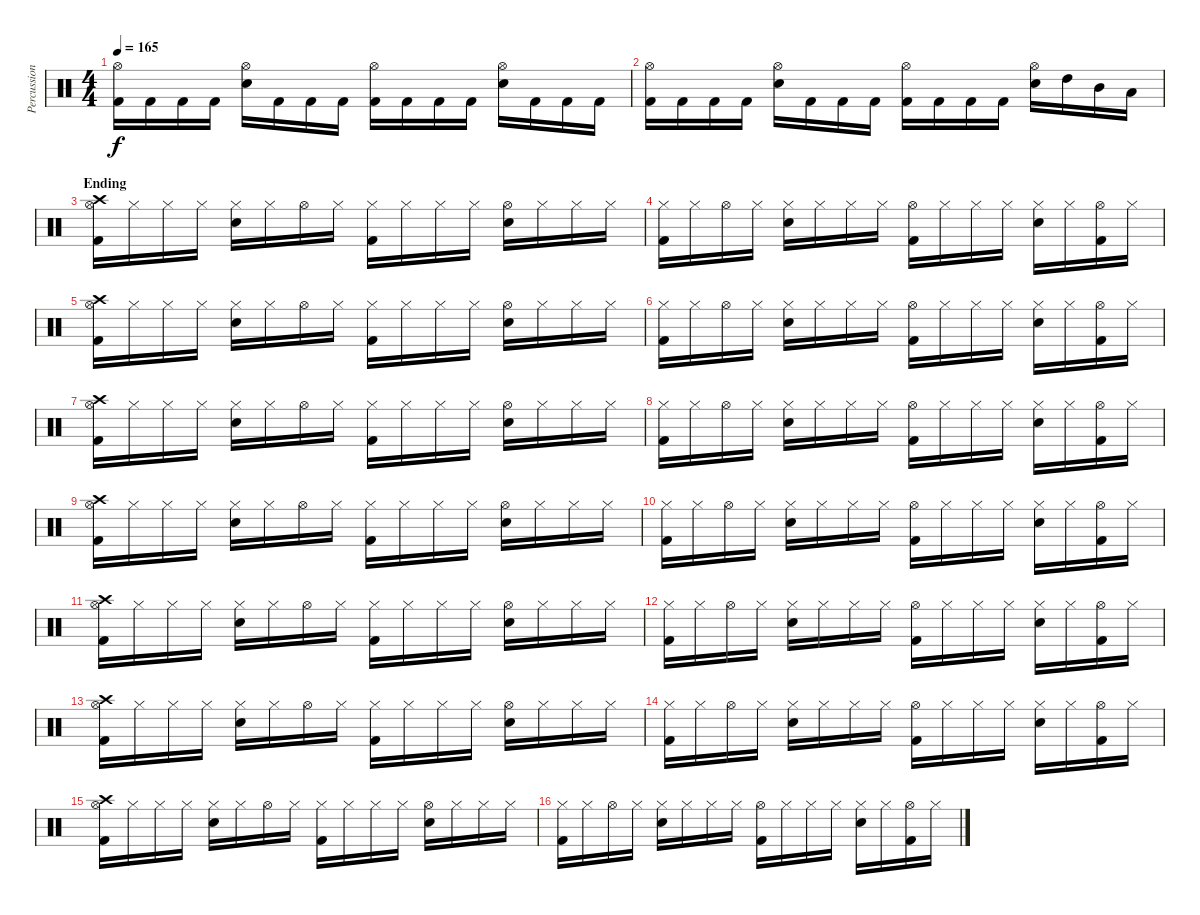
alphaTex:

\track ("Percussions" "Percussion") {instrument percussion}
\staff {score}
\articulation defaults
\ts (4 4)
\tempo 165
\clef neutral
\ks c
("Hi-Hat (open)" "Kick (hit) 2").16{dy f} "Kick (hit) 2".16 "Kick (hit) 2".16 "Kick (hit) 2".16 ("Hi-Hat (open)" "Electric Snare (hit)").16 "Kick (hit) 2".16 "Kick (hit) 2".16 "Kick (hit) 2".16 ("Hi-Hat (open)" "Kick (hit) 2").16 "Kick (hit) 2".16 "Kick (hit) 2".16 "Kick (hit) 2".16 ("Hi-Hat (open)" "Electric Snare (hit)").16 "Kick (hit) 2".16 "Kick (hit) 2".16 "Kick (hit) 2".16 |
("Hi-Hat (open)" "Kick (hit) 2").16 "Kick (hit) 2".16 "Kick (hit) 2".16 "Kick (hit) 2".16 ("Hi-Hat (open)" "Electric Snare (hit)").16 "Kick (hit) 2".16 "Kick (hit) 2".16 "Kick (hit) 2".16 ("Hi-Hat (open)" "Kick (hit) 2").16 "Kick (hit) 2".16 "Kick (hit) 2".16 "Kick (hit) 2".16 ("Hi-Hat (open)" "Electric Snare (hit)").16 "High Tom (hit)".16 "Mid Tom (hit)".16 "Low Tom (hit)".16 |
\section ("" "Ending")
("Hi-Hat (open)" "Crash high (hit)" "Kick (hit) 2").16 "Hi-Hat (closed)".16 "Hi-Hat (closed)".16 "Hi-Hat (closed)".16 ("Hi-Hat (closed)" "Electric Snare (hit)").16 "Hi-Hat (closed)".16 "Hi-Hat (open)".16 "Hi-Hat (closed)".16 ("Hi-Hat (closed)" "Kick (hit) 2").16 "Hi-Hat (closed)".16 "Hi-Hat (closed)".16 "Hi-Hat (closed)".16 ("Hi-Hat (open)" "Electric Snare (hit)").16 "Hi-Hat (closed)".16 "Hi-Hat (closed)".16 "Hi-Hat (closed)".16 |
("Hi-Hat (closed)" "Kick (hit) 2").16 "Hi-Hat (closed)".16 "Hi-Hat (open)".16 "Hi-Hat (closed)".16 ("Hi-Hat (closed)" "Electric Snare (hit)").16 "Hi-Hat (closed)".16 "Hi-Hat (closed)".16 "Hi-Hat (closed)".16 ("Hi-Hat (open)" "Kick (hit) 2").16 "Hi-Hat (closed)".16 "Hi-Hat (closed)".16 "Hi-Hat (closed)".16 ("Hi-Hat (closed)" "Electric Snare (hit)").16 "Hi-Hat (closed)".16 ("Hi-Hat (open)" "Kick (hit) 2").16 "Hi-Hat (closed)".16 |
("Hi-Hat (open)" "Crash high (hit)" "Kick (hit) 2").16 "Hi-Hat (closed)".16 "Hi-Hat (closed)".16 "Hi-Hat (closed)".16 ("Hi-Hat (closed)" "Electric Snare (hit)").16 "Hi-Hat (closed)".16 "Hi-Hat (open)".16 "Hi-Hat (closed)".16 ("Hi-Hat (closed)" "Kick (hit) 2").16 "Hi-Hat (closed)".16 "Hi-Hat (closed)".16 "Hi-Hat (closed)".16 ("Hi-Hat (open)" "Electric Snare (hit)").16 "Hi-Hat (closed)".16 "Hi-Hat (closed)".16 "Hi-Hat (closed)".16 |
("Hi-Hat (closed)" "Kick (hit) 2").16 "Hi-Hat (closed)".16 "Hi-Hat (open)".16 "Hi-Hat (closed)".16 ("Hi-Hat (closed)" "Electric Snare (hit)").16 "Hi-Hat (closed)".16 "Hi-Hat (closed)".16 "Hi-Hat (closed)".16 ("Hi-Hat (open)" "Kick (hit) 2").16 "Hi-Hat (closed)".16 "Hi-Hat (closed)".16 "Hi-Hat (closed)".16 ("Hi-Hat (closed)" "Electric Snare (hit)").16 "Hi-Hat (closed)".16 ("Hi-Hat (open)" "Kick (hit) 2").16 "Hi-Hat (closed)".16 |
("Hi-Hat (open)" "Crash high (hit)" "Kick (hit) 2").16 "Hi-Hat (closed)".16 "Hi-Hat (closed)".16 "Hi-Hat (closed)".16 ("Hi-Hat (closed)" "Electric Snare (hit)").16 "Hi-Hat (closed)".16 "Hi-Hat (open)".16 "Hi-Hat (closed)".16 ("Hi-Hat (closed)" "Kick (hit) 2").16 "Hi-Hat (closed)".16 "Hi-Hat (closed)".16 "Hi-Hat (closed)".16 ("Hi-Hat (open)" "Electric Snare (hit)").16 "Hi-Hat (closed)".16 "Hi-Hat (closed)".16 "Hi-Hat (closed)".16 |
("Hi-Hat (closed)" "Kick (hit) 2").16 "Hi-Hat (closed)".16 "Hi-Hat (open)".16 "Hi-Hat (closed)".16 ("Hi-Hat (closed)" "Electric Snare (hit)").16 "Hi-Hat (closed)".16 "Hi-Hat (closed)".16 "Hi-Hat (closed)".16 ("Hi-Hat (open)" "Kick (hit) 2").16 "Hi-Hat (closed)".16 "Hi-Hat (closed)".16 "Hi-Hat (closed)".16 ("Hi-Hat (closed)" "Electric Snare (hit)").16 "Hi-Hat (closed)".16 ("Hi-Hat (open)" "Kick (hit) 2").16 "Hi-Hat (closed)".16 |
("Hi-Hat (open)" "Crash high (hit)" "Kick (hit) 2").16 "Hi-Hat (closed)".16 "Hi-Hat (closed)".16 "Hi-Hat (closed)".16 ("Hi-Hat (closed)" "Electric Snare (hit)").16 "Hi-Hat (closed)".16 "Hi-Hat (open)".16 "Hi-Hat (closed)".16 ("Hi-Hat (closed)" "Kick (hit) 2").16 "Hi-Hat (closed)".16 "Hi-Hat (closed)".16 "Hi-Hat (closed)".16 ("Hi-Hat (open)" "Electric Snare (hit)").16 "Hi-Hat (closed)".16 "Hi-Hat (closed)".16 "Hi-Hat (closed)".16 |
("Hi-Hat (closed)" "Kick (hit) 2").16 "Hi-Hat (closed)".16 "Hi-Hat (open)".16 "Hi-Hat (closed)".16 ("Hi-Hat (closed)" "Electric Snare (hit)").16 "Hi-Hat (closed)".16 "Hi-Hat (closed)".16 "Hi-Hat (closed)".16 ("Hi-Hat (open)" "Kick (hit) 2").16 "Hi-Hat (closed)".16 "Hi-Hat (closed)".16 "Hi-Hat (closed)".16 ("Hi-Hat (closed)" "Electric Snare (hit)").16 "Hi-Hat (closed)".16 ("Hi-Hat (open)" "Kick (hit) 2").16 "Hi-Hat (closed)".16 |
("Hi-Hat (open)" "Crash high (hit)" "Kick (hit) 2").16 "Hi-Hat (closed)".16 "Hi-Hat (closed)".16 "Hi-Hat (closed)".16 ("Hi-Hat (closed)" "Electric Snare (hit)").16 "Hi-Hat (closed)".16 "Hi-Hat (open)".16 "Hi-Hat (closed)".16 ("Hi-Hat (closed)" "Kick (hit) 2").16 "Hi-Hat (closed)".16 "Hi-Hat (closed)".16 "Hi-Hat (closed)".16 ("Hi-Hat (open)" "Electric Snare (hit)").16 "Hi-Hat (closed)".16 "Hi-Hat (closed)".16 "Hi-Hat (closed)".16 |
("Hi-Hat (closed)" "Kick (hit) 2").16 "Hi-Hat (closed)".16 "Hi-Hat (open)".16 "Hi-Hat (closed)".16 ("Hi-Hat (closed)" "Electric Snare (hit)").16 "Hi-Hat (closed)".16 "Hi-Hat (closed)".16 "Hi-Hat (closed)".16 ("Hi-Hat (open)" "Kick (hit) 2").16 "Hi-Hat (closed)".16 "Hi-Hat (closed)".16 "Hi-Hat (closed)".16 ("Hi-Hat (closed)" "Electric Snare (hit)").16 "Hi-Hat (closed)".16 ("Hi-Hat (open)" "Kick (hit) 2").16 "Hi-Hat (closed)".16 |
("Hi-Hat (open)" "Crash high (hit)" "Kick (hit) 2").16 "Hi-Hat (closed)".16 "Hi-Hat (closed)".16 "Hi-Hat (closed)".16 ("Hi-Hat (closed)" "Electric Snare (hit)").16 "Hi-Hat (closed)".16 "Hi-Hat (open)".16 "Hi-Hat (closed)".16 ("Hi-Hat (closed)" "Kick (hit) 2").16 "Hi-Hat (closed)".16 "Hi-Hat (closed)".16 "Hi-Hat (closed)".16 ("Hi-Hat (open)" "Electric Snare (hit)").16 "Hi-Hat (closed)".16 "Hi-Hat (closed)".16 "Hi-Hat (closed)".16 |
("Hi-Hat (closed)" "Kick (hit) 2").16 "Hi-Hat (closed)".16 "Hi-Hat (open)".16 "Hi-Hat (closed)".16 ("Hi-Hat (closed)" "Electric Snare (hit)").16 "Hi-Hat (closed)".16 "Hi-Hat (closed)".16 "Hi-Hat (closed)".16 ("Hi-Hat (open)" "Kick (hit) 2").16 "Hi-Hat (closed)".16 "Hi-Hat (closed)".16 "Hi-Hat (closed)".16 ("Hi-Hat (closed)" "Electric Snare (hit)").16 "Hi-Hat (closed)".16 ("Hi-Hat (open)" "Kick (hit) 2").16 "Hi-Hat (closed)".16 |
("Hi-Hat (open)" "Crash high (hit)" "Kick (hit) 2").16 "Hi-Hat (closed)".16 "Hi-Hat (closed)".16 "Hi-Hat (closed)".16 ("Hi-Hat (closed)" "Electric Snare (hit)").16 "Hi-Hat (closed)".16 "Hi-Hat (open)".16 "Hi-Hat (closed)".16 ("Hi-Hat (closed)" "Kick (hit) 2").16 "Hi-Hat (closed)".16 "Hi-Hat (closed)".16 "Hi-Hat (closed)".16 ("Hi-Hat (open)" "Electric Snare (hit)").16 "Hi-Hat (closed)".16 "Hi-Hat (closed)".16 "Hi-Hat (closed)".16 |
("Hi-Hat (closed)" "Kick (hit) 2").16 "Hi-Hat (closed)".16 "Hi-Hat (open)".16 "Hi-Hat (closed)".16 ("Hi-Hat (closed)" "Electric Snare (hit)").16 "Hi-Hat (closed)".16 "Hi-Hat (closed)".16 "Hi-Hat (closed)".16 ("Hi-Hat (open)" "Kick (hit) 2").16 "Hi-Hat (closed)".16 "Hi-Hat (closed)".16 "Hi-Hat (closed)".16 ("Hi-Hat (closed)" "Electric Snare (hit)").16 "Hi-Hat (closed)".16 ("Hi-Hat (open)" "Kick (hit) 2").16 "Hi-Hat (closed)".16
